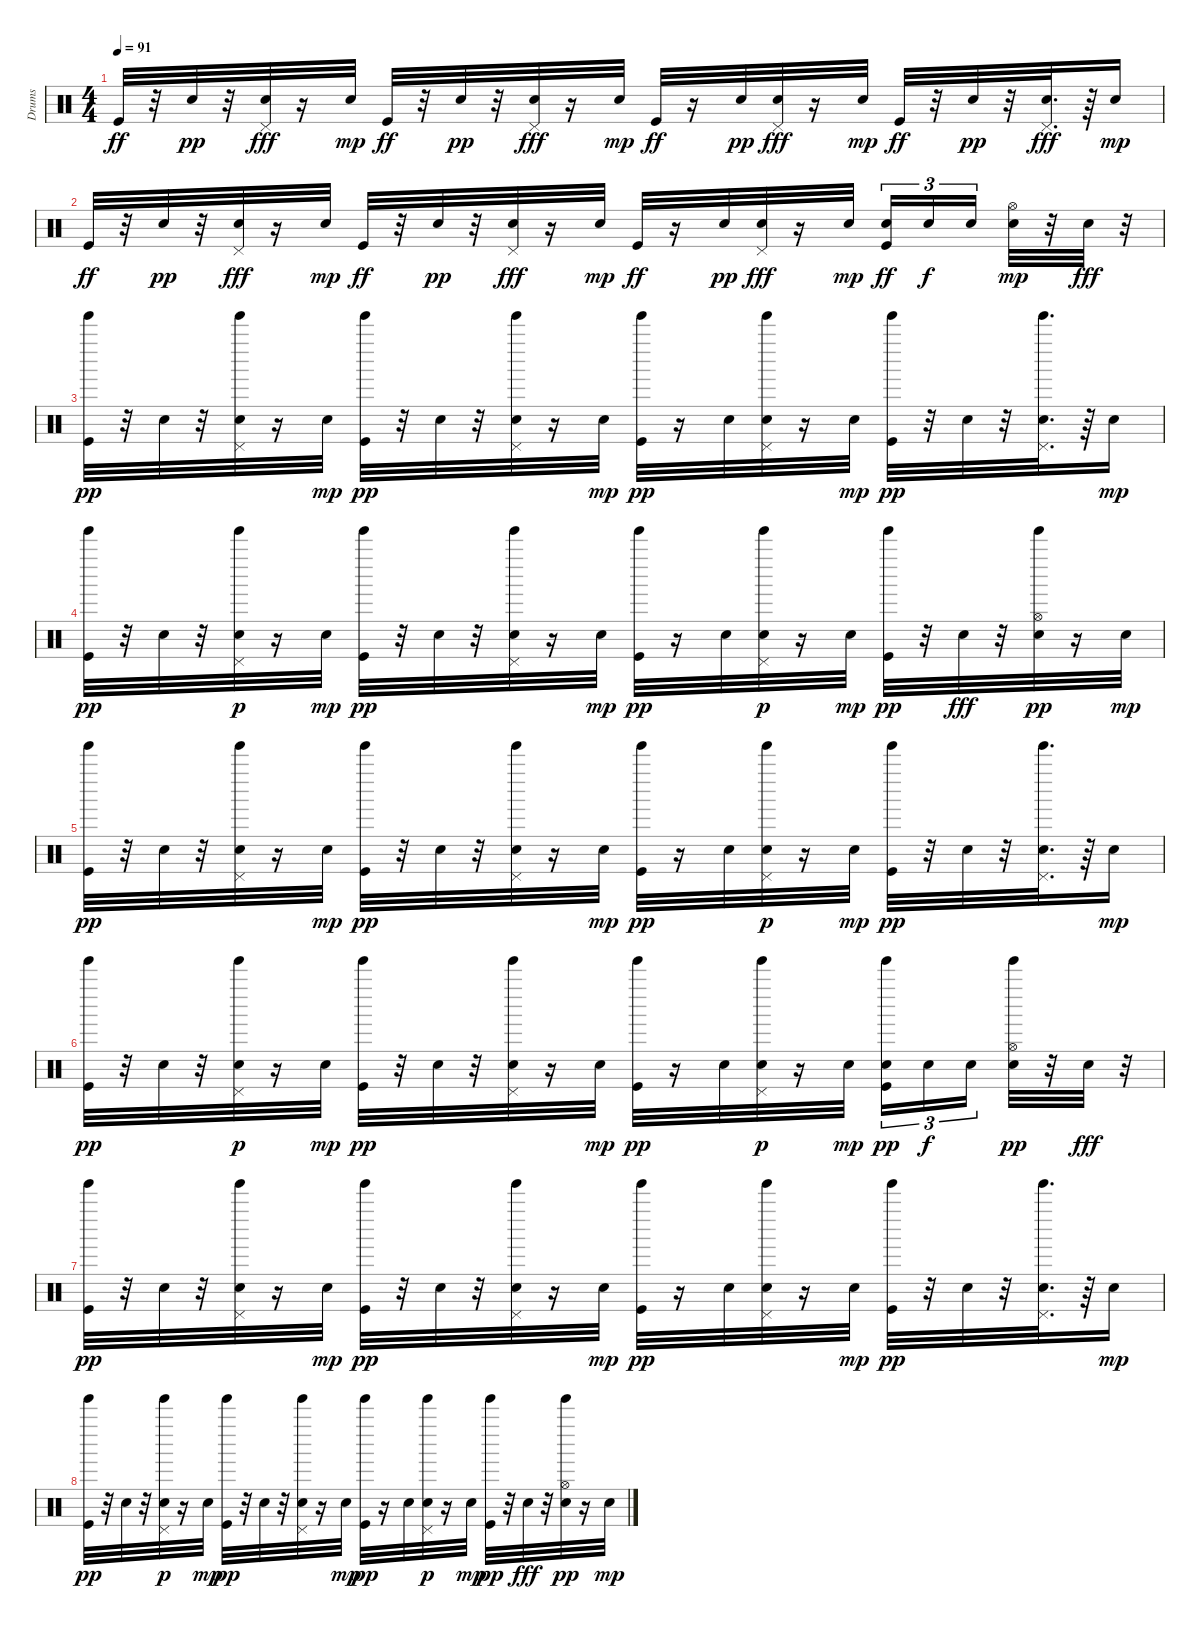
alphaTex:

\track ("Drums" "Drums") {instrument percussion}
\staff {score}
\articulation defaults
\ts (4 4)
\tempo 91
\clef neutral
\ks c "Kick (hit)".32{dy ff}
r.32 "Snare (hit) 2".32{dy pp} r.32 ("Snare (hit) 2" "Pedal Hi-Hat (hit)").32{dy fff} r.16 "Snare (hit) 2".32{dy mp} "Kick (hit)".32{dy ff} r.32 "Snare (hit) 2".32{dy pp} r.32 ("Snare (hit) 2" "Pedal Hi-Hat (hit)").32{dy fff} r.16 "Snare (hit) 2".32{dy mp} "Kick (hit)".32{dy ff} r.16 "Snare (hit) 2".32{dy pp} ("Snare (hit) 2" "Pedal Hi-Hat (hit)").32{dy fff} r.16 "Snare (hit) 2".32{dy mp} "Kick (hit)".32{dy ff} r.32 "Snare (hit) 2".32{dy pp} r.32 ("Snare (hit) 2" "Pedal Hi-Hat (hit)").32{d dy fff} r.64 "Snare (hit) 2".16{dy mp} |
"Kick (hit)".32{dy ff} r.32 "Snare (hit) 2".32{dy pp} r.32 ("Snare (hit) 2" "Pedal Hi-Hat (hit)").32{dy fff} r.16 "Snare (hit) 2".32{dy mp} "Kick (hit)".32{dy ff} r.32 "Snare (hit) 2".32{dy pp} r.32 ("Snare (hit) 2" "Pedal Hi-Hat (hit)").32{dy fff} r.16 "Snare (hit) 2".32{dy mp} "Kick (hit)".32{dy ff} r.16 "Snare (hit) 2".32{dy pp} ("Snare (hit) 2" "Pedal Hi-Hat (hit)").32{dy fff} r.16 "Snare (hit) 2".32{dy mp} ("Kick (hit)" "Snare (hit) 2").16{tu (3 2) dy ff} "Snare (hit) 2".16{tu (3 2) dy f} "Snare (hit) 2".16{tu (3 2) beam splitsecondary} ("Snare (hit) 2" "Hi-Hat (open)").32{dy mp} r.32 "Snare (hit) 2".32{dy fff} r.32 |
("Kick (hit)" "Tinkle Bell (hit)").32{dy pp} r.32 "Snare (hit) 2".32 r.32 ("Snare (hit) 2" "Pedal Hi-Hat (hit)" "Tinkle Bell (hit)").32 r.16 "Snare (hit) 2".32{dy mp} ("Kick (hit)" "Tinkle Bell (hit)").32{dy pp} r.32 "Snare (hit) 2".32 r.32 ("Snare (hit) 2" "Pedal Hi-Hat (hit)" "Tinkle Bell (hit)").32 r.16 "Snare (hit) 2".32{dy mp} ("Kick (hit)" "Tinkle Bell (hit)").32{dy pp} r.16 "Snare (hit) 2".32 ("Snare (hit) 2" "Pedal Hi-Hat (hit)" "Tinkle Bell (hit)").32 r.16 "Snare (hit) 2".32{dy mp} ("Kick (hit)" "Tinkle Bell (hit)").32{dy pp} r.32 "Snare (hit) 2".32 r.32 ("Snare (hit) 2" "Pedal Hi-Hat (hit)" "Tinkle Bell (hit)").32{d} r.64 "Snare (hit) 2".16{dy mp} |
("Kick (hit)" "Tinkle Bell (hit)").32{dy pp} r.32 "Snare (hit) 2".32 r.32 ("Snare (hit) 2" "Pedal Hi-Hat (hit)" "Tinkle Bell (hit)").32{dy p} r.16 "Snare (hit) 2".32{dy mp} ("Kick (hit)" "Tinkle Bell (hit)").32{dy pp} r.32 "Snare (hit) 2".32 r.32 ("Snare (hit) 2" "Pedal Hi-Hat (hit)" "Tinkle Bell (hit)").32 r.16 "Snare (hit) 2".32{dy mp} ("Kick (hit)" "Tinkle Bell (hit)").32{dy pp} r.16 "Snare (hit) 2".32 ("Snare (hit) 2" "Pedal Hi-Hat (hit)" "Tinkle Bell (hit)").32{dy p} r.16 "Snare (hit) 2".32{dy mp} ("Kick (hit)" "Tinkle Bell (hit)").32{dy pp} r.32 "Snare (hit) 2".32{dy fff} r.32 ("Snare (hit) 2" "Hi-Hat (open)" "Tinkle Bell (hit)").32{dy pp} r.16 "Snare (hit) 2".32{dy mp} |
("Kick (hit)" "Tinkle Bell (hit)").32{dy pp} r.32 "Snare (hit) 2".32 r.32 ("Snare (hit) 2" "Pedal Hi-Hat (hit)" "Tinkle Bell (hit)").32 r.16 "Snare (hit) 2".32{dy mp} ("Kick (hit)" "Tinkle Bell (hit)").32{dy pp} r.32 "Snare (hit) 2".32 r.32 ("Snare (hit) 2" "Pedal Hi-Hat (hit)" "Tinkle Bell (hit)").32 r.16 "Snare (hit) 2".32{dy mp} ("Kick (hit)" "Tinkle Bell (hit)").32{dy pp} r.16 "Snare (hit) 2".32 ("Snare (hit) 2" "Pedal Hi-Hat (hit)" "Tinkle Bell (hit)").32{dy p} r.16 "Snare (hit) 2".32{dy mp} ("Kick (hit)" "Tinkle Bell (hit)").32{dy pp} r.32 "Snare (hit) 2".32 r.32 ("Snare (hit) 2" "Pedal Hi-Hat (hit)" "Tinkle Bell (hit)").32{d} r.64 "Snare (hit) 2".16{dy mp} |
("Kick (hit)" "Tinkle Bell (hit)").32{dy pp} r.32 "Snare (hit) 2".32 r.32 ("Snare (hit) 2" "Pedal Hi-Hat (hit)" "Tinkle Bell (hit)").32{dy p} r.16 "Snare (hit) 2".32{dy mp} ("Kick (hit)" "Tinkle Bell (hit)").32{dy pp} r.32 "Snare (hit) 2".32 r.32 ("Snare (hit) 2" "Pedal Hi-Hat (hit)" "Tinkle Bell (hit)").32 r.16 "Snare (hit) 2".32{dy mp} ("Kick (hit)" "Tinkle Bell (hit)").32{dy pp} r.16 "Snare (hit) 2".32 ("Snare (hit) 2" "Pedal Hi-Hat (hit)" "Tinkle Bell (hit)").32{dy p} r.16 "Snare (hit) 2".32{dy mp} ("Kick (hit)" "Snare (hit) 2" "Tinkle Bell (hit)").16{tu (3 2) dy pp} "Snare (hit) 2".16{tu (3 2) dy f} "Snare (hit) 2".16{tu (3 2) beam splitsecondary} ("Snare (hit) 2" "Hi-Hat (open)" "Tinkle Bell (hit)").32{dy pp} r.32 "Snare (hit) 2".32{dy fff} r.32 |
("Kick (hit)" "Tinkle Bell (hit)").32{dy pp} r.32 "Snare (hit) 2".32 r.32 ("Snare (hit) 2" "Pedal Hi-Hat (hit)" "Tinkle Bell (hit)").32 r.16 "Snare (hit) 2".32{dy mp} ("Kick (hit)" "Tinkle Bell (hit)").32{dy pp} r.32 "Snare (hit) 2".32 r.32 ("Snare (hit) 2" "Pedal Hi-Hat (hit)" "Tinkle Bell (hit)").32 r.16 "Snare (hit) 2".32{dy mp} ("Kick (hit)" "Tinkle Bell (hit)").32{dy pp} r.16 "Snare (hit) 2".32 ("Snare (hit) 2" "Pedal Hi-Hat (hit)" "Tinkle Bell (hit)").32 r.16 "Snare (hit) 2".32{dy mp} ("Kick (hit)" "Tinkle Bell (hit)").32{dy pp} r.32 "Snare (hit) 2".32 r.32 ("Snare (hit) 2" "Pedal Hi-Hat (hit)" "Tinkle Bell (hit)").32{d} r.64 "Snare (hit) 2".16{dy mp} |
("Kick (hit)" "Tinkle Bell (hit)").32{dy pp} r.32 "Snare (hit) 2".32 r.32 ("Snare (hit) 2" "Pedal Hi-Hat (hit)" "Tinkle Bell (hit)").32{dy p} r.16 "Snare (hit) 2".32{dy mp} ("Kick (hit)" "Tinkle Bell (hit)").32{dy pp} r.32 "Snare (hit) 2".32 r.32 ("Snare (hit) 2" "Pedal Hi-Hat (hit)" "Tinkle Bell (hit)").32 r.16 "Snare (hit) 2".32{dy mp} ("Kick (hit)" "Tinkle Bell (hit)").32{dy pp} r.16 "Snare (hit) 2".32 ("Snare (hit) 2" "Pedal Hi-Hat (hit)" "Tinkle Bell (hit)").32{dy p} r.16 "Snare (hit) 2".32{dy mp} ("Kick (hit)" "Tinkle Bell (hit)").32{dy pp} r.32 "Snare (hit) 2".32{dy fff} r.32 ("Snare (hit) 2" "Hi-Hat (open)" "Tinkle Bell (hit)").32{dy pp} r.16 "Snare (hit) 2".32{dy mp}
